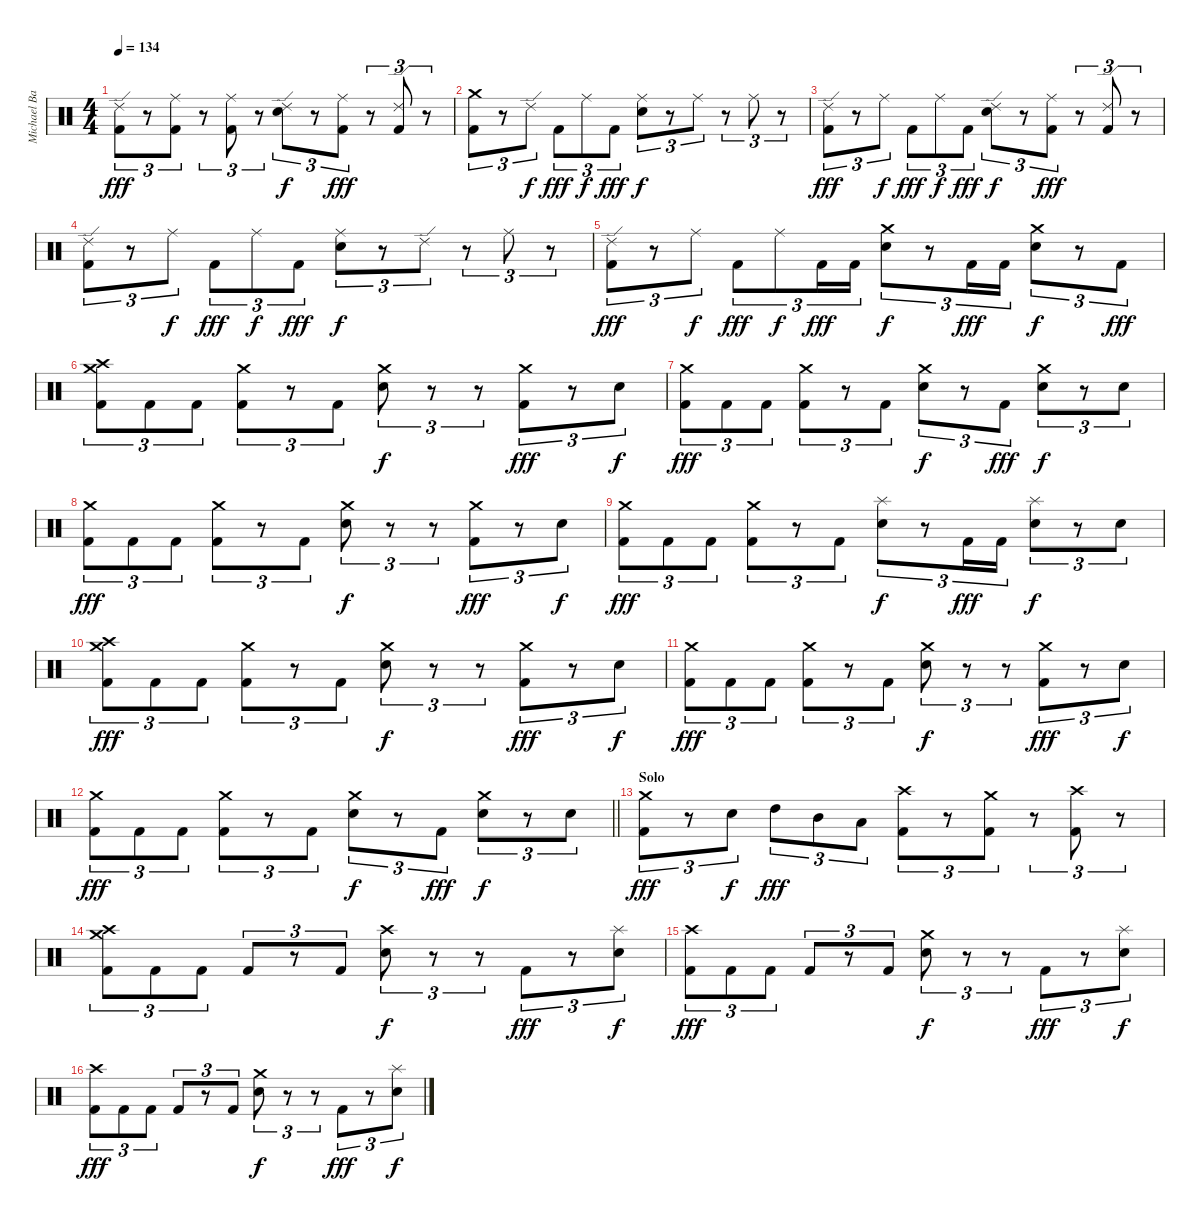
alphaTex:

\track ("Michael Bartlett " "Michael Ba") {instrument percussion}
\staff {score}
\articulation defaults
\ts (4 4)
\tempo 134
\clef neutral
\ks c
("Ride (edge) 2" "Kick (hit) 2").8{tu (3 2) dy fff} r.8{tu (3 2)} ("Ride (middle)" "Kick (hit) 2").8{tu (3 2)} r.8{tu (3 2)} ("Ride (middle)" "Kick (hit) 2").8{tu (3 2)} r.8{tu (3 2)} ("Ride (edge) 2" "Electric Snare (hit)").8{tu (3 2) dy f} r.8{tu (3 2)} ("Ride (middle)" "Kick (hit) 2").8{tu (3 2) dy fff} r.8{tu (3 2)} ("Ride (edge) 2" "Kick (hit) 2").8{tu (3 2)} r.8{tu (3 2)} |
("Crash medium (hit)" "Kick (hit) 2").8{tu (3 2)} r.8{tu (3 2)} "Ride (edge) 2".8{tu (3 2) dy f} "Kick (hit) 2".8{tu (3 2) dy fff} "Ride (middle)".8{tu (3 2) dy f} "Kick (hit) 2".8{tu (3 2) dy fff} ("Ride (middle)" "Electric Snare (hit)").8{tu (3 2) dy f} r.8{tu (3 2)} "Ride (middle)".8{tu (3 2)} r.8{tu (3 2)} "Ride (middle)".8{tu (3 2)} r.8{tu (3 2)} |
("Ride (edge) 2" "Kick (hit) 2").8{tu (3 2) dy fff} r.8{tu (3 2)} "Ride (middle)".8{tu (3 2) dy f} "Kick (hit) 2".8{tu (3 2) dy fff} "Ride (middle)".8{tu (3 2) dy f} "Kick (hit) 2".8{tu (3 2) dy fff} ("Ride (edge) 2" "Electric Snare (hit)").8{tu (3 2) dy f} r.8{tu (3 2)} ("Ride (middle)" "Kick (hit) 2").8{tu (3 2) dy fff} r.8{tu (3 2)} ("Ride (edge) 2" "Kick (hit) 2").8{tu (3 2)} r.8{tu (3 2)} |
("Ride (edge) 2" "Kick (hit) 2").8{tu (3 2)} r.8{tu (3 2)} "Ride (middle)".8{tu (3 2) dy f} "Kick (hit) 2".8{tu (3 2) dy fff} "Ride (middle)".8{tu (3 2) dy f} "Kick (hit) 2".8{tu (3 2) dy fff} ("Ride (middle)" "Electric Snare (hit)").8{tu (3 2) dy f} r.8{tu (3 2)} "Ride (edge) 2".8{tu (3 2)} r.8{tu (3 2)} "Ride (middle)".8{tu (3 2)} r.8{tu (3 2)} |
("Ride (edge) 2" "Kick (hit) 2").8{tu (3 2) dy fff} r.8{tu (3 2)} "Ride (middle)".8{tu (3 2) dy f} "Kick (hit) 2".8{tu (3 2) dy fff} "Ride (middle)".8{tu (3 2) dy f} "Kick (hit) 2".16{tu (3 2) dy fff} "Kick (hit) 2".16{tu (3 2)} ("Crash medium (hit)" "Electric Snare (hit)").8{tu (3 2) dy f} r.8{tu (3 2)} "Kick (hit) 2".16{tu (3 2) dy fff} "Kick (hit) 2".16{tu (3 2)} ("Crash medium (hit)" "Electric Snare (hit)").8{tu (3 2) dy f} r.8{tu (3 2)} "Kick (hit) 2".8{tu (3 2) dy fff} |
("Crash medium (hit)" "Crash high (hit)" "Kick (hit) 2").8{tu (3 2)} "Kick (hit) 2".8{tu (3 2)} "Kick (hit) 2".8{tu (3 2)} ("Crash medium (hit)" "Kick (hit) 2").8{tu (3 2)} r.8{tu (3 2)} "Kick (hit) 2".8{tu (3 2)} ("Crash medium (hit)" "Electric Snare (hit)").8{tu (3 2) dy f} r.8{tu (3 2)} r.8{tu (3 2)} ("Crash medium (hit)" "Kick (hit) 2").8{tu (3 2) dy fff} r.8{tu (3 2)} "Electric Snare (hit)".8{tu (3 2) dy f} |
("Crash medium (hit)" "Kick (hit) 2").8{tu (3 2) dy fff} "Kick (hit) 2".8{tu (3 2)} "Kick (hit) 2".8{tu (3 2)} ("Crash medium (hit)" "Kick (hit) 2").8{tu (3 2)} r.8{tu (3 2)} "Kick (hit) 2".8{tu (3 2)} ("Crash medium (hit)" "Electric Snare (hit)").8{tu (3 2) dy f} r.8{tu (3 2)} "Kick (hit) 2".8{tu (3 2) dy fff} ("Crash medium (hit)" "Electric Snare (hit)").8{tu (3 2) dy f} r.8{tu (3 2)} "Electric Snare (hit)".8{tu (3 2)} |
("Crash medium (hit)" "Kick (hit) 2").8{tu (3 2) dy fff} "Kick (hit) 2".8{tu (3 2)} "Kick (hit) 2".8{tu (3 2)} ("Crash medium (hit)" "Kick (hit) 2").8{tu (3 2)} r.8{tu (3 2)} "Kick (hit) 2".8{tu (3 2)} ("Crash medium (hit)" "Electric Snare (hit)").8{tu (3 2) dy f} r.8{tu (3 2)} r.8{tu (3 2)} ("Crash medium (hit)" "Kick (hit) 2").8{tu (3 2) dy fff} r.8{tu (3 2)} "Electric Snare (hit)".8{tu (3 2) dy f} |
("Crash medium (hit)" "Kick (hit) 2").8{tu (3 2) dy fff} "Kick (hit) 2".8{tu (3 2)} "Kick (hit) 2".8{tu (3 2)} ("Crash medium (hit)" "Kick (hit) 2").8{tu (3 2)} r.8{tu (3 2)} "Kick (hit) 2".8{tu (3 2)} ("Splash (hit)" "Electric Snare (hit)").8{tu (3 2) dy f} r.8{tu (3 2)} "Kick (hit) 2".16{tu (3 2) dy fff} "Kick (hit) 2".16{tu (3 2)} ("Splash (hit)" "Electric Snare (hit)").8{tu (3 2) dy f} r.8{tu (3 2)} "Electric Snare (hit)".8{tu (3 2)} |
("Crash medium (hit)" "Crash high (hit)" "Kick (hit) 2").8{tu (3 2) dy fff} "Kick (hit) 2".8{tu (3 2)} "Kick (hit) 2".8{tu (3 2)} ("Crash medium (hit)" "Kick (hit) 2").8{tu (3 2)} r.8{tu (3 2)} "Kick (hit) 2".8{tu (3 2)} ("Crash medium (hit)" "Electric Snare (hit)").8{tu (3 2) dy f} r.8{tu (3 2)} r.8{tu (3 2)} ("Crash medium (hit)" "Kick (hit) 2").8{tu (3 2) dy fff} r.8{tu (3 2)} "Electric Snare (hit)".8{tu (3 2) dy f} |
("Crash medium (hit)" "Kick (hit) 2").8{tu (3 2) dy fff} "Kick (hit) 2".8{tu (3 2)} "Kick (hit) 2".8{tu (3 2)} ("Crash medium (hit)" "Kick (hit) 2").8{tu (3 2)} r.8{tu (3 2)} "Kick (hit) 2".8{tu (3 2)} ("Crash medium (hit)" "Electric Snare (hit)").8{tu (3 2) dy f} r.8{tu (3 2)} r.8{tu (3 2)} ("Crash medium (hit)" "Kick (hit) 2").8{tu (3 2) dy fff} r.8{tu (3 2)} "Electric Snare (hit)".8{tu (3 2) dy f} |
\barLineRight lightlight
("Crash medium (hit)" "Kick (hit) 2").8{tu (3 2) dy fff} "Kick (hit) 2".8{tu (3 2)} "Kick (hit) 2".8{tu (3 2)} ("Crash medium (hit)" "Kick (hit) 2").8{tu (3 2)} r.8{tu (3 2)} "Kick (hit) 2".8{tu (3 2)} ("Crash medium (hit)" "Electric Snare (hit)").8{tu (3 2) dy f} r.8{tu (3 2)} "Kick (hit) 2".8{tu (3 2) dy fff} ("Crash medium (hit)" "Electric Snare (hit)").8{tu (3 2) dy f} r.8{tu (3 2)} "Electric Snare (hit)".8{tu (3 2)} |
\section ("" "Solo")
("Crash medium (hit)" "Kick (hit) 2").8{tu (3 2) dy fff} r.8{tu (3 2)} "Electric Snare (hit)".8{tu (3 2) dy f} "High Tom (hit)".8{tu (3 2) dy fff} "Mid Tom (hit)".8{tu (3 2)} "Low Tom (hit)".8{tu (3 2)} ("Crash high (hit)" "Kick (hit) 2").8{tu (3 2)} r.8{tu (3 2)} ("Crash medium (hit)" "Kick (hit) 2").8{tu (3 2)} r.8{tu (3 2)} ("Crash high (hit)" "Kick (hit) 2").8{tu (3 2)} r.8{tu (3 2)} |
("Crash medium (hit)" "Crash high (hit)" "Kick (hit) 2").8{tu (3 2)} "Kick (hit) 2".8{tu (3 2)} "Kick (hit) 2".8{tu (3 2)} "Kick (hit) 2".8{tu (3 2)} r.8{tu (3 2)} "Kick (hit) 2".8{tu (3 2)} ("Crash high (hit)" "Electric Snare (hit)").8{tu (3 2) dy f} r.8{tu (3 2)} r.8{tu (3 2)} "Kick (hit) 2".8{tu (3 2) dy fff} r.8{tu (3 2)} ("Splash (hit)" "Electric Snare (hit)").8{tu (3 2) dy f} |
("Crash high (hit)" "Kick (hit) 2").8{tu (3 2) dy fff} "Kick (hit) 2".8{tu (3 2)} "Kick (hit) 2".8{tu (3 2)} "Kick (hit) 2".8{tu (3 2)} r.8{tu (3 2)} "Kick (hit) 2".8{tu (3 2)} ("Crash medium (hit)" "Electric Snare (hit)").8{tu (3 2) dy f} r.8{tu (3 2)} r.8{tu (3 2)} "Kick (hit) 2".8{tu (3 2) dy fff} r.8{tu (3 2)} ("Splash (hit)" "Electric Snare (hit)").8{tu (3 2) dy f} |
("Crash high (hit)" "Kick (hit) 2").8{tu (3 2) dy fff} "Kick (hit) 2".8{tu (3 2)} "Kick (hit) 2".8{tu (3 2)} "Kick (hit) 2".8{tu (3 2)} r.8{tu (3 2)} "Kick (hit) 2".8{tu (3 2)} ("Crash medium (hit)" "Electric Snare (hit)").8{tu (3 2) dy f} r.8{tu (3 2)} r.8{tu (3 2)} "Kick (hit) 2".8{tu (3 2) dy fff} r.8{tu (3 2)} ("Splash (hit)" "Electric Snare (hit)").8{tu (3 2) dy f}
